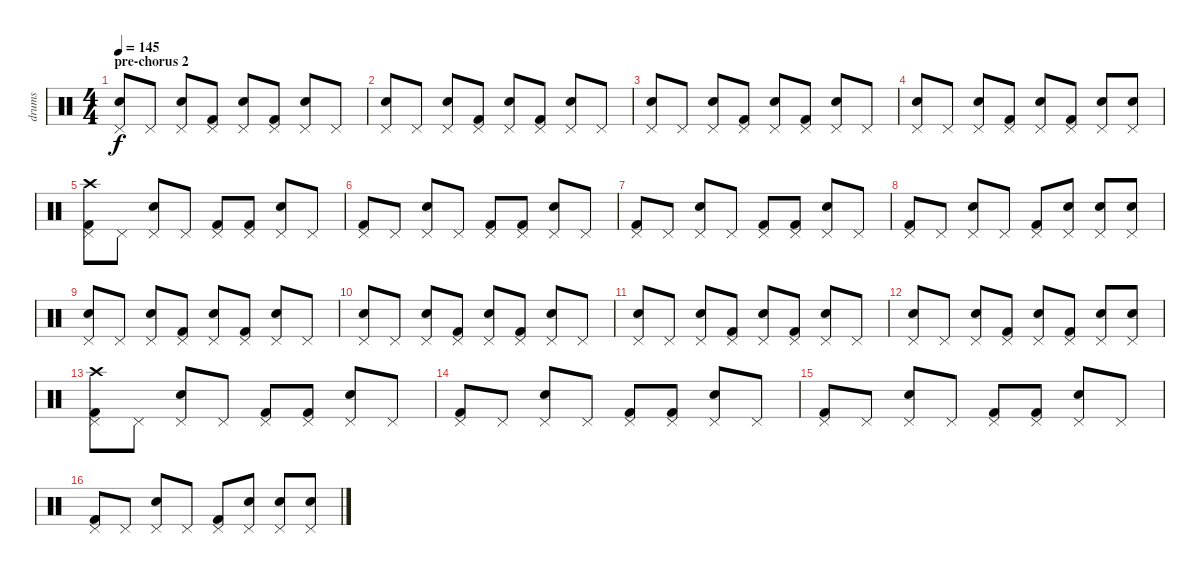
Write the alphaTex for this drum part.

\track ("drums" "drums") {instrument percussion}
\staff {score}
\articulation defaults
\ts (4 4)
\section ("" "pre-chorus 2")
\tempo 145
\clef neutral
\ks c
("Snare (hit) 2" "Pedal Hi-Hat (hit)").8{dy f} "Pedal Hi-Hat (hit)".8 ("Snare (hit) 2" "Pedal Hi-Hat (hit)").8 ("Kick (hit) 2" "Pedal Hi-Hat (hit)").8 ("Snare (hit) 2" "Pedal Hi-Hat (hit)").8 ("Kick (hit) 2" "Pedal Hi-Hat (hit)").8 ("Snare (hit) 2" "Pedal Hi-Hat (hit)").8 "Pedal Hi-Hat (hit)".8 |
("Snare (hit) 2" "Pedal Hi-Hat (hit)").8 "Pedal Hi-Hat (hit)".8 ("Snare (hit) 2" "Pedal Hi-Hat (hit)").8 ("Kick (hit) 2" "Pedal Hi-Hat (hit)").8 ("Snare (hit) 2" "Pedal Hi-Hat (hit)").8 ("Kick (hit) 2" "Pedal Hi-Hat (hit)").8 ("Snare (hit) 2" "Pedal Hi-Hat (hit)").8 "Pedal Hi-Hat (hit)".8 |
("Snare (hit) 2" "Pedal Hi-Hat (hit)").8 "Pedal Hi-Hat (hit)".8 ("Snare (hit) 2" "Pedal Hi-Hat (hit)").8 ("Kick (hit) 2" "Pedal Hi-Hat (hit)").8 ("Snare (hit) 2" "Pedal Hi-Hat (hit)").8 ("Kick (hit) 2" "Pedal Hi-Hat (hit)").8 ("Snare (hit) 2" "Pedal Hi-Hat (hit)").8 "Pedal Hi-Hat (hit)".8 |
("Snare (hit) 2" "Pedal Hi-Hat (hit)").8 "Pedal Hi-Hat (hit)".8 ("Snare (hit) 2" "Pedal Hi-Hat (hit)").8 ("Kick (hit) 2" "Pedal Hi-Hat (hit)").8 ("Snare (hit) 2" "Pedal Hi-Hat (hit)").8 ("Kick (hit) 2" "Pedal Hi-Hat (hit)").8 ("Snare (hit) 2" "Pedal Hi-Hat (hit)").8 ("Snare (hit) 2" "Pedal Hi-Hat (hit)").8 |
("Kick (hit) 2" "Crash high (hit)" "Pedal Hi-Hat (hit)").8 "Pedal Hi-Hat (hit)".8 ("Snare (hit) 2" "Pedal Hi-Hat (hit)").8 "Pedal Hi-Hat (hit)".8 ("Kick (hit) 2" "Pedal Hi-Hat (hit)").8 ("Kick (hit) 2" "Pedal Hi-Hat (hit)").8 ("Snare (hit) 2" "Pedal Hi-Hat (hit)").8 "Pedal Hi-Hat (hit)".8 |
("Kick (hit) 2" "Pedal Hi-Hat (hit)").8 "Pedal Hi-Hat (hit)".8 ("Snare (hit) 2" "Pedal Hi-Hat (hit)").8 "Pedal Hi-Hat (hit)".8 ("Kick (hit) 2" "Pedal Hi-Hat (hit)").8 ("Kick (hit) 2" "Pedal Hi-Hat (hit)").8 ("Snare (hit) 2" "Pedal Hi-Hat (hit)").8 "Pedal Hi-Hat (hit)".8 |
("Kick (hit) 2" "Pedal Hi-Hat (hit)").8 "Pedal Hi-Hat (hit)".8 ("Snare (hit) 2" "Pedal Hi-Hat (hit)").8 "Pedal Hi-Hat (hit)".8 ("Kick (hit) 2" "Pedal Hi-Hat (hit)").8 ("Kick (hit) 2" "Pedal Hi-Hat (hit)").8 ("Snare (hit) 2" "Pedal Hi-Hat (hit)").8 "Pedal Hi-Hat (hit)".8 |
("Kick (hit) 2" "Pedal Hi-Hat (hit)").8 "Pedal Hi-Hat (hit)".8 ("Snare (hit) 2" "Pedal Hi-Hat (hit)").8 "Pedal Hi-Hat (hit)".8 ("Kick (hit) 2" "Pedal Hi-Hat (hit)").8 ("Snare (hit) 2" "Pedal Hi-Hat (hit)").8 ("Snare (hit) 2" "Pedal Hi-Hat (hit)").8 ("Snare (hit) 2" "Pedal Hi-Hat (hit)").8 |
("Snare (hit) 2" "Pedal Hi-Hat (hit)").8 "Pedal Hi-Hat (hit)".8 ("Snare (hit) 2" "Pedal Hi-Hat (hit)").8 ("Kick (hit) 2" "Pedal Hi-Hat (hit)").8 ("Snare (hit) 2" "Pedal Hi-Hat (hit)").8 ("Kick (hit) 2" "Pedal Hi-Hat (hit)").8 ("Snare (hit) 2" "Pedal Hi-Hat (hit)").8 "Pedal Hi-Hat (hit)".8 |
("Snare (hit) 2" "Pedal Hi-Hat (hit)").8 "Pedal Hi-Hat (hit)".8 ("Snare (hit) 2" "Pedal Hi-Hat (hit)").8 ("Kick (hit) 2" "Pedal Hi-Hat (hit)").8 ("Snare (hit) 2" "Pedal Hi-Hat (hit)").8 ("Kick (hit) 2" "Pedal Hi-Hat (hit)").8 ("Snare (hit) 2" "Pedal Hi-Hat (hit)").8 "Pedal Hi-Hat (hit)".8 |
("Snare (hit) 2" "Pedal Hi-Hat (hit)").8 "Pedal Hi-Hat (hit)".8 ("Snare (hit) 2" "Pedal Hi-Hat (hit)").8 ("Kick (hit) 2" "Pedal Hi-Hat (hit)").8 ("Snare (hit) 2" "Pedal Hi-Hat (hit)").8 ("Kick (hit) 2" "Pedal Hi-Hat (hit)").8 ("Snare (hit) 2" "Pedal Hi-Hat (hit)").8 "Pedal Hi-Hat (hit)".8 |
("Snare (hit) 2" "Pedal Hi-Hat (hit)").8 "Pedal Hi-Hat (hit)".8 ("Snare (hit) 2" "Pedal Hi-Hat (hit)").8 ("Kick (hit) 2" "Pedal Hi-Hat (hit)").8 ("Snare (hit) 2" "Pedal Hi-Hat (hit)").8 ("Kick (hit) 2" "Pedal Hi-Hat (hit)").8 ("Snare (hit) 2" "Pedal Hi-Hat (hit)").8 ("Snare (hit) 2" "Pedal Hi-Hat (hit)").8 |
("Kick (hit) 2" "Crash high (hit)" "Pedal Hi-Hat (hit)").8 "Pedal Hi-Hat (hit)".8 ("Snare (hit) 2" "Pedal Hi-Hat (hit)").8 "Pedal Hi-Hat (hit)".8 ("Kick (hit) 2" "Pedal Hi-Hat (hit)").8 ("Kick (hit) 2" "Pedal Hi-Hat (hit)").8 ("Snare (hit) 2" "Pedal Hi-Hat (hit)").8 "Pedal Hi-Hat (hit)".8 |
("Kick (hit) 2" "Pedal Hi-Hat (hit)").8 "Pedal Hi-Hat (hit)".8 ("Snare (hit) 2" "Pedal Hi-Hat (hit)").8 "Pedal Hi-Hat (hit)".8 ("Kick (hit) 2" "Pedal Hi-Hat (hit)").8 ("Kick (hit) 2" "Pedal Hi-Hat (hit)").8 ("Snare (hit) 2" "Pedal Hi-Hat (hit)").8 "Pedal Hi-Hat (hit)".8 |
("Kick (hit) 2" "Pedal Hi-Hat (hit)").8 "Pedal Hi-Hat (hit)".8 ("Snare (hit) 2" "Pedal Hi-Hat (hit)").8 "Pedal Hi-Hat (hit)".8 ("Kick (hit) 2" "Pedal Hi-Hat (hit)").8 ("Kick (hit) 2" "Pedal Hi-Hat (hit)").8 ("Snare (hit) 2" "Pedal Hi-Hat (hit)").8 "Pedal Hi-Hat (hit)".8 |
("Kick (hit) 2" "Pedal Hi-Hat (hit)").8 "Pedal Hi-Hat (hit)".8 ("Snare (hit) 2" "Pedal Hi-Hat (hit)").8 "Pedal Hi-Hat (hit)".8 ("Kick (hit) 2" "Pedal Hi-Hat (hit)").8 ("Snare (hit) 2" "Pedal Hi-Hat (hit)").8 ("Snare (hit) 2" "Pedal Hi-Hat (hit)").8 ("Snare (hit) 2" "Pedal Hi-Hat (hit)").8
